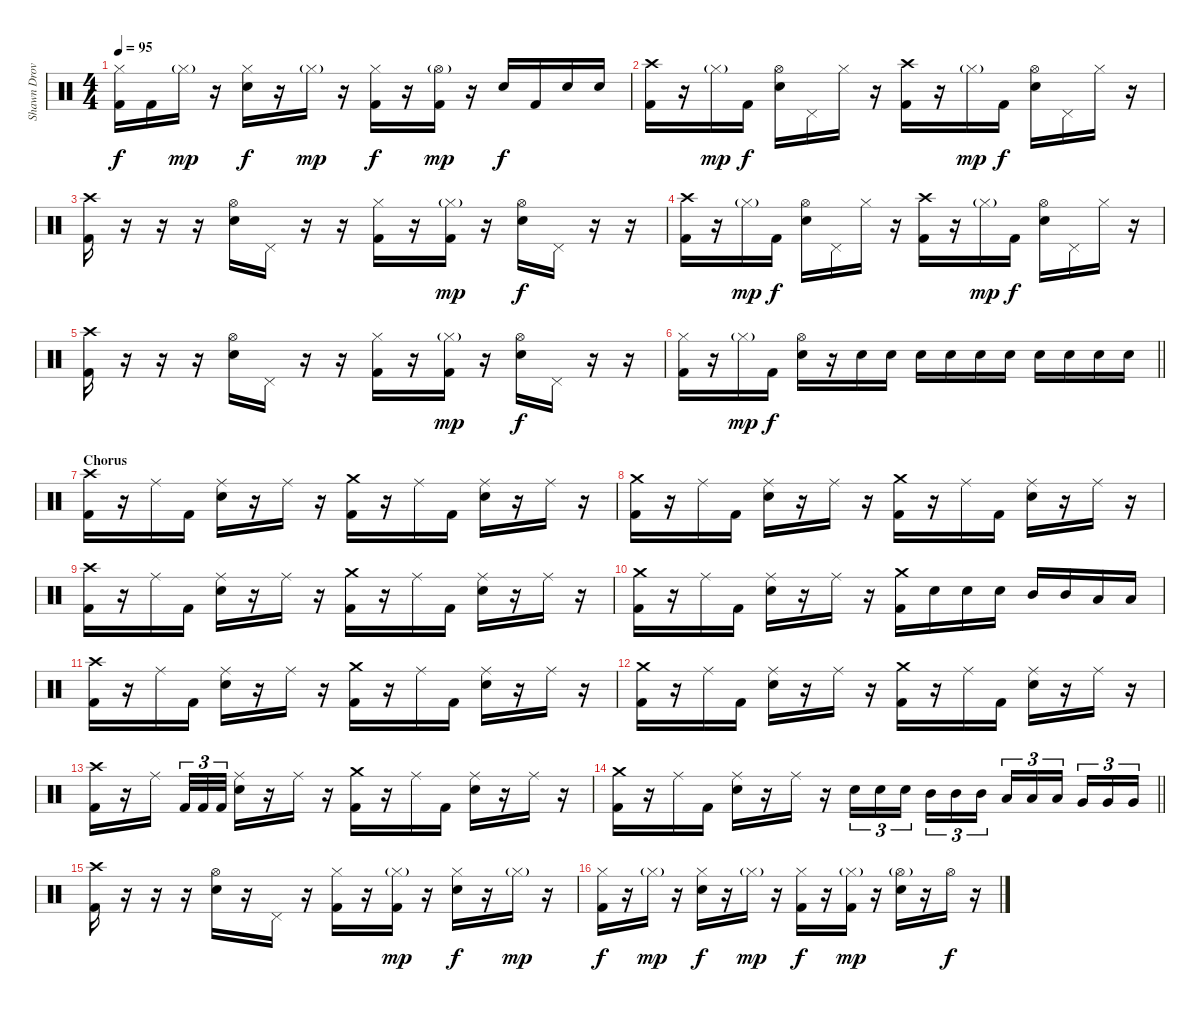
\track ("Shawn Drover" "Shawn Drov") {instrument percussion}
\staff {score}
\articulation defaults
\ts (4 4)
\tempo 95
\clef neutral
\ks c
("Hi-Hat (closed)" "Kick (hit) 2").16{dy f} "Kick (hit) 2".16 "Hi-Hat (closed)"{g}.16{dy mp} r.16 ("Hi-Hat (closed)" "Snare (hit) 2").16{dy f} r.16 "Hi-Hat (closed)"{g}.16{dy mp} r.16 ("Hi-Hat (closed)" "Kick (hit) 2").16{dy f} r.16 ("Hi-Hat (open)"{g} "Kick (hit) 2").16{dy mp} r.16 "Snare (hit) 2".16{dy f} "Kick (hit) 2".16 "Snare (hit) 2".16 "Snare (hit) 2".16 |
("Crash high (hit)" "Kick (hit) 2").16 r.16 "Hi-Hat (closed)"{g}.16{dy mp} "Kick (hit) 2".16{dy f} ("Hi-Hat (open)" "Snare (hit) 2").16 "Pedal Hi-Hat (hit)".16 "Hi-Hat (closed)".16 r.16 ("Crash high (hit)" "Kick (hit) 2").16 r.16 "Hi-Hat (closed)"{g}.16{dy mp} "Kick (hit) 2".16{dy f} ("Hi-Hat (open)" "Snare (hit) 2").16 "Pedal Hi-Hat (hit)".16 "Hi-Hat (closed)".16 r.16 |
("Crash high (hit)" "Kick (hit) 2").16 r.16 r.16 r.16 ("Hi-Hat (open)" "Snare (hit) 2").16 "Pedal Hi-Hat (hit)".16 r.16 r.16 ("Hi-Hat (closed)" "Kick (hit) 2").16 r.16 ("Hi-Hat (closed)"{g} "Kick (hit) 2").16{dy mp} r.16 ("Hi-Hat (open)" "Snare (hit) 2").16{dy f} "Pedal Hi-Hat (hit)".16 r.16 r.16 |
("Crash high (hit)" "Kick (hit) 2").16 r.16 "Hi-Hat (closed)"{g}.16{dy mp} "Kick (hit) 2".16{dy f} ("Hi-Hat (open)" "Snare (hit) 2").16 "Pedal Hi-Hat (hit)".16 "Hi-Hat (closed)".16 r.16 ("Crash high (hit)" "Kick (hit) 2").16 r.16 "Hi-Hat (closed)"{g}.16{dy mp} "Kick (hit) 2".16{dy f} ("Hi-Hat (open)" "Snare (hit) 2").16 "Pedal Hi-Hat (hit)".16 "Hi-Hat (closed)".16 r.16 |
("Crash high (hit)" "Kick (hit) 2").16 r.16 r.16 r.16 ("Hi-Hat (open)" "Snare (hit) 2").16 "Pedal Hi-Hat (hit)".16 r.16 r.16 ("Hi-Hat (closed)" "Kick (hit) 2").16 r.16 ("Hi-Hat (closed)"{g} "Kick (hit) 2").16{dy mp} r.16 ("Hi-Hat (open)" "Snare (hit) 2").16{dy f} "Pedal Hi-Hat (hit)".16 r.16 r.16 |
\barLineRight lightlight
("Hi-Hat (closed)" "Kick (hit) 2").16 r.16 "Hi-Hat (closed)"{g}.16{dy mp} "Kick (hit) 2".16{dy f} ("Hi-Hat (open)" "Snare (hit) 2").16 r.16 "Snare (hit) 2".16 "Snare (hit) 2".16 "Snare (hit) 2".16 "Snare (hit) 2".16 "Snare (hit) 2".16 "Snare (hit) 2".16 "Snare (hit) 2".16 "Snare (hit) 2".16 "Snare (hit) 2".16 "Snare (hit) 2".16 |
\section ("" "Chorus")
("Crash high (hit)" "Kick (hit) 2").16 r.16 "Ride (middle)".16 "Kick (hit) 2".16 ("Ride (middle)" "Snare (hit) 2").16 r.16 "Ride (middle)".16 r.16 ("Crash medium (hit)" "Kick (hit) 2").16 r.16 "Ride (middle)".16 "Kick (hit) 2".16 ("Ride (middle)" "Snare (hit) 2").16 r.16 "Ride (middle)".16 r.16 |
("Crash medium (hit)" "Kick (hit) 2").16 r.16 "Ride (middle)".16 "Kick (hit) 2".16 ("Ride (middle)" "Snare (hit) 2").16 r.16 "Ride (middle)".16 r.16 ("Crash medium (hit)" "Kick (hit) 2").16 r.16 "Ride (middle)".16 "Kick (hit) 2".16 ("Ride (middle)" "Snare (hit) 2").16 r.16 "Ride (middle)".16 r.16 |
("Crash high (hit)" "Kick (hit) 2").16 r.16 "Ride (middle)".16 "Kick (hit) 2".16 ("Ride (middle)" "Snare (hit) 2").16 r.16 "Ride (middle)".16 r.16 ("Crash medium (hit)" "Kick (hit) 2").16 r.16 "Ride (middle)".16 "Kick (hit) 2".16 ("Ride (middle)" "Snare (hit) 2").16 r.16 "Ride (middle)".16 r.16 |
("Crash medium (hit)" "Kick (hit) 2").16 r.16 "Ride (middle)".16 "Kick (hit) 2".16 ("Ride (middle)" "Snare (hit) 2").16 r.16 "Ride (middle)".16 r.16 ("Crash medium (hit)" "Kick (hit) 2").16 "Snare (hit) 2".16 "Snare (hit) 2".16 "Snare (hit) 2".16 "Mid Tom (hit)".16 "Mid Tom (hit)".16 "Low Tom (hit)".16 "Low Tom (hit)".16 |
("Crash high (hit)" "Kick (hit) 2").16 r.16 "Ride (middle)".16 "Kick (hit) 2".16 ("Ride (middle)" "Snare (hit) 2").16 r.16 "Ride (middle)".16 r.16 ("Crash medium (hit)" "Kick (hit) 2").16 r.16 "Ride (middle)".16 "Kick (hit) 2".16 ("Ride (middle)" "Snare (hit) 2").16 r.16 "Ride (middle)".16 r.16 |
("Crash medium (hit)" "Kick (hit) 2").16 r.16 "Ride (middle)".16 "Kick (hit) 2".16 ("Ride (middle)" "Snare (hit) 2").16 r.16 "Ride (middle)".16 r.16 ("Crash medium (hit)" "Kick (hit) 2").16 r.16 "Ride (middle)".16 "Kick (hit) 2".16 ("Ride (middle)" "Snare (hit) 2").16 r.16 "Ride (middle)".16 r.16 |
("Crash high (hit)" "Kick (hit) 2").16 r.16 "Ride (middle)".16{beam splitsecondary} "Kick (hit) 2".32{tu (3 2)} "Kick (hit) 2".32{tu (3 2)} "Kick (hit) 2".32{tu (3 2)} ("Ride (middle)" "Snare (hit) 2").16 r.16 "Ride (middle)".16 r.16 ("Crash medium (hit)" "Kick (hit) 2").16 r.16 "Ride (middle)".16 "Kick (hit) 2".16 ("Ride (middle)" "Snare (hit) 2").16 r.16 "Ride (middle)".16 r.16 |
\barLineRight lightlight
("Crash medium (hit)" "Kick (hit) 2").16 r.16 "Ride (middle)".16 "Kick (hit) 2".16 ("Ride (middle)" "Snare (hit) 2").16 r.16 "Ride (middle)".16 r.16 "Snare (hit) 2".16{tu (3 2)} "Snare (hit) 2".16{tu (3 2)} "Snare (hit) 2".16{tu (3 2) beam splitsecondary} "Mid Tom (hit)".16{tu (3 2)} "Mid Tom (hit)".16{tu (3 2)} "Mid Tom (hit)".16{tu (3 2)} "Low Tom (hit)".16{tu (3 2)} "Low Tom (hit)".16{tu (3 2)} "Low Tom (hit)".16{tu (3 2) beam splitsecondary} "Very Low Tom (hit)".16{tu (3 2)} "Very Low Tom (hit)".16{tu (3 2)} "Very Low Tom (hit)".16{tu (3 2)} |
("Crash high (hit)" "Kick (hit) 2").16 r.16 r.16 r.16 ("Hi-Hat (open)" "Snare (hit) 2").16 r.16 "Pedal Hi-Hat (hit)".16 r.16 ("Hi-Hat (closed)" "Kick (hit) 2").16 r.16 ("Hi-Hat (closed)"{g} "Kick (hit) 2").16{dy mp} r.16 ("Hi-Hat (closed)" "Snare (hit) 2").16{dy f} r.16 "Hi-Hat (closed)"{g}.16{dy mp} r.16 |
("Hi-Hat (closed)" "Kick (hit) 2").16{dy f} r.16 "Hi-Hat (closed)"{g}.16{dy mp} r.16 ("Hi-Hat (closed)" "Snare (hit) 2").16{dy f} r.16 "Hi-Hat (closed)"{g}.16{dy mp} r.16 ("Hi-Hat (closed)" "Kick (hit) 2").16{dy f} r.16 ("Hi-Hat (closed)"{g} "Kick (hit) 2").16{dy mp} r.16 ("Hi-Hat (open)"{g} "Snare (hit) 2").16 r.16 "Hi-Hat (open)".16{dy f} r.16
